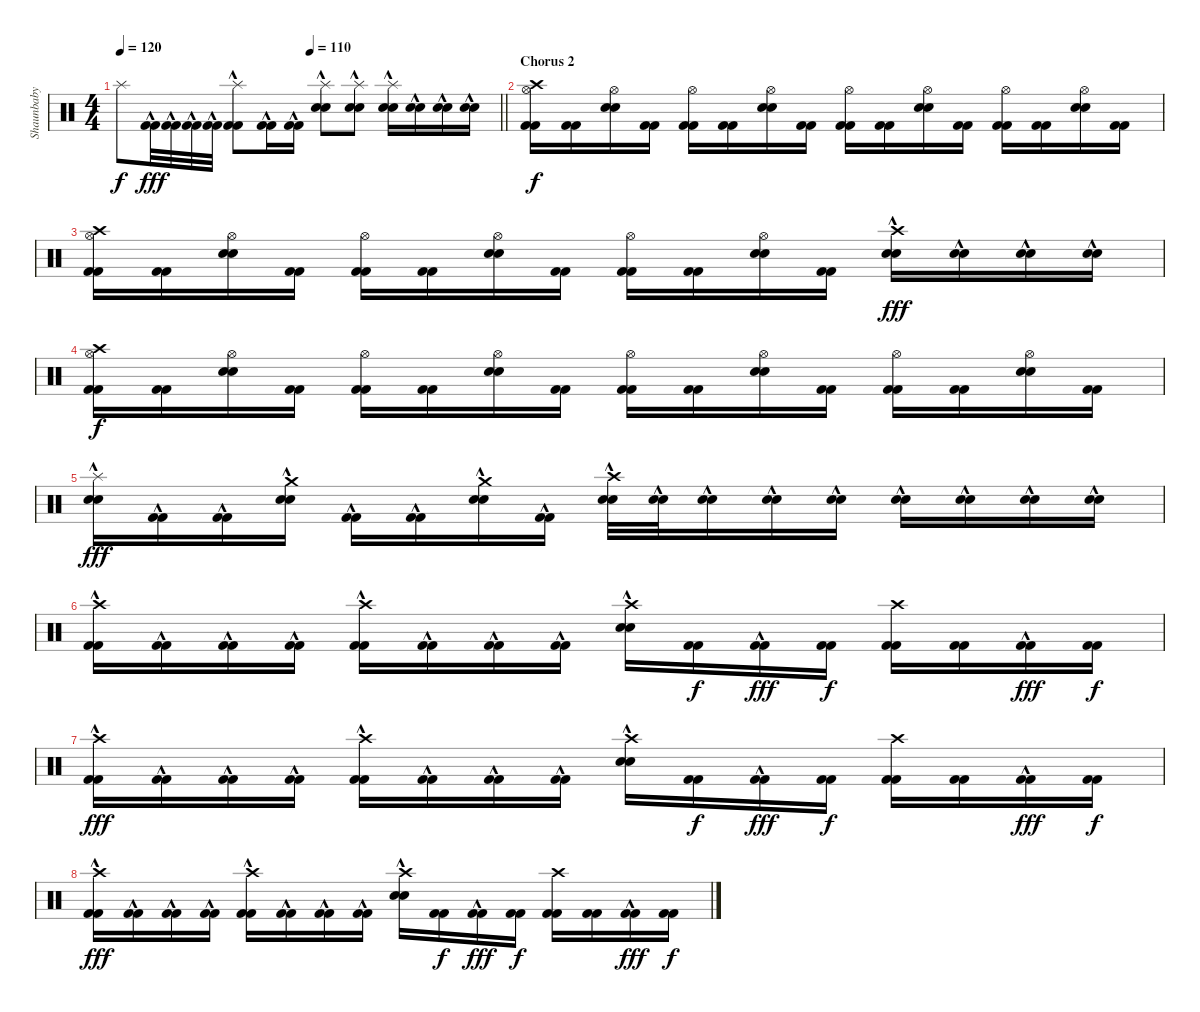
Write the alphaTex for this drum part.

\track ("Shaunbaby" "Shaunbaby") {instrument percussion}
\staff {score}
\articulation defaults
\ts (4 4)
\tempo 120
\tempo (110 0.5)
\clef neutral
\barLineRight lightlight
\ks c "Splash (hit)".8{dy f}
("Kick (hit) 2"{hac} "Kick (hit) 2"{hac}).32{dy fff} ("Kick (hit) 2"{hac} "Kick (hit) 2"{hac}).32 ("Kick (hit) 2"{hac} "Kick (hit) 2"{hac}).32 ("Kick (hit) 2"{hac} "Kick (hit) 2"{hac}).32 ("Splash (hit)" "Kick (hit) 2"{hac} "Kick (hit) 2"{hac}).8 ("Kick (hit) 2"{hac} "Kick (hit) 2"{hac}).16 ("Kick (hit) 2"{hac} "Kick (hit) 2"{hac}).16 ("Splash (hit)" "Electric Snare (hit)"{hac} "Electric Snare (hit)"{hac}).8 ("Splash (hit)" "Electric Snare (hit)"{hac} "Electric Snare (hit)"{hac}).8 ("Splash (hit)" "Electric Snare (hit)"{hac} "Electric Snare (hit)"{hac}).16 ("Electric Snare (hit)"{hac} "Electric Snare (hit)"{hac}).16 ("Electric Snare (hit)"{hac} "Electric Snare (hit)"{hac}).16 ("Electric Snare (hit)"{hac} "Electric Snare (hit)"{hac}).16 |
\section ("" "Chorus 2")
("Crash high (hit)" "Hi-Hat (open)" "Kick (hit) 2" "Kick (hit) 2").16{dy f} ("Kick (hit) 2" "Kick (hit) 2").16 ("Hi-Hat (open)" "Electric Snare (hit)" "Electric Snare (hit)").16 ("Kick (hit) 2" "Kick (hit) 2").16 ("Hi-Hat (open)" "Kick (hit) 2" "Kick (hit) 2").16 ("Kick (hit) 2" "Kick (hit) 2").16 ("Hi-Hat (open)" "Electric Snare (hit)" "Electric Snare (hit)").16 ("Kick (hit) 2" "Kick (hit) 2").16 ("Hi-Hat (open)" "Kick (hit) 2" "Kick (hit) 2").16 ("Kick (hit) 2" "Kick (hit) 2").16 ("Hi-Hat (open)" "Electric Snare (hit)" "Electric Snare (hit)").16 ("Kick (hit) 2" "Kick (hit) 2").16 ("Hi-Hat (open)" "Kick (hit) 2" "Kick (hit) 2").16 ("Kick (hit) 2" "Kick (hit) 2").16 ("Hi-Hat (open)" "Electric Snare (hit)" "Electric Snare (hit)").16 ("Kick (hit) 2" "Kick (hit) 2").16 |
("Crash high (hit)" "Hi-Hat (open)" "Kick (hit) 2" "Kick (hit) 2").16 ("Kick (hit) 2" "Kick (hit) 2").16 ("Hi-Hat (open)" "Electric Snare (hit)" "Electric Snare (hit)").16 ("Kick (hit) 2" "Kick (hit) 2").16 ("Hi-Hat (open)" "Kick (hit) 2" "Kick (hit) 2").16 ("Kick (hit) 2" "Kick (hit) 2").16 ("Hi-Hat (open)" "Electric Snare (hit)" "Electric Snare (hit)").16 ("Kick (hit) 2" "Kick (hit) 2").16 ("Hi-Hat (open)" "Kick (hit) 2" "Kick (hit) 2").16 ("Kick (hit) 2" "Kick (hit) 2").16 ("Hi-Hat (open)" "Electric Snare (hit)" "Electric Snare (hit)").16 ("Kick (hit) 2" "Kick (hit) 2").16 ("Crash high (hit)" "Electric Snare (hit)"{hac} "Electric Snare (hit)"{hac}).16{dy fff} ("Electric Snare (hit)"{hac} "Electric Snare (hit)"{hac}).16 ("Electric Snare (hit)"{hac} "Electric Snare (hit)"{hac}).16 ("Electric Snare (hit)"{hac} "Electric Snare (hit)"{hac}).16 |
("Crash high (hit)" "Hi-Hat (open)" "Kick (hit) 2" "Kick (hit) 2").16{dy f} ("Kick (hit) 2" "Kick (hit) 2").16 ("Hi-Hat (open)" "Electric Snare (hit)" "Electric Snare (hit)").16 ("Kick (hit) 2" "Kick (hit) 2").16 ("Hi-Hat (open)" "Kick (hit) 2" "Kick (hit) 2").16 ("Kick (hit) 2" "Kick (hit) 2").16 ("Hi-Hat (open)" "Electric Snare (hit)" "Electric Snare (hit)").16 ("Kick (hit) 2" "Kick (hit) 2").16 ("Hi-Hat (open)" "Kick (hit) 2" "Kick (hit) 2").16 ("Kick (hit) 2" "Kick (hit) 2").16 ("Hi-Hat (open)" "Electric Snare (hit)" "Electric Snare (hit)").16 ("Kick (hit) 2" "Kick (hit) 2").16 ("Hi-Hat (open)" "Kick (hit) 2" "Kick (hit) 2").16 ("Kick (hit) 2" "Kick (hit) 2").16 ("Hi-Hat (open)" "Electric Snare (hit)" "Electric Snare (hit)").16 ("Kick (hit) 2" "Kick (hit) 2").16 |
("Splash (hit)" "Electric Snare (hit)"{hac} "Electric Snare (hit)"{hac}).16{dy fff} ("Kick (hit) 2"{hac} "Kick (hit) 2"{hac}).16 ("Kick (hit) 2"{hac} "Kick (hit) 2"{hac}).16 ("Crash medium (hit)" "Electric Snare (hit)"{hac} "Electric Snare (hit)"{hac}).16 ("Kick (hit) 2"{hac} "Kick (hit) 2"{hac}).16 ("Kick (hit) 2"{hac} "Kick (hit) 2"{hac}).16 ("Crash medium (hit)" "Electric Snare (hit)"{hac} "Electric Snare (hit)"{hac}).16 ("Kick (hit) 2"{hac} "Kick (hit) 2"{hac}).16 ("Crash high (hit)" "Electric Snare (hit)"{hac} "Electric Snare (hit)"{hac}).32 ("Electric Snare (hit)"{hac} "Electric Snare (hit)"{hac}).32 ("Electric Snare (hit)"{hac} "Electric Snare (hit)"{hac}).16 ("Electric Snare (hit)"{hac} "Electric Snare (hit)"{hac}).16 ("Electric Snare (hit)"{hac} "Electric Snare (hit)"{hac}).16 ("Electric Snare (hit)"{hac} "Electric Snare (hit)"{hac}).16 ("Electric Snare (hit)"{hac} "Electric Snare (hit)"{hac}).16 ("Electric Snare (hit)"{hac} "Electric Snare (hit)"{hac}).16 ("Electric Snare (hit)"{hac} "Electric Snare (hit)"{hac}).16 |
("Crash high (hit)" "Kick (hit) 2"{hac} "Kick (hit) 2"{hac}).16 ("Kick (hit) 2"{hac} "Kick (hit) 2"{hac}).16 ("Kick (hit) 2"{hac} "Kick (hit) 2"{hac}).16 ("Kick (hit) 2"{hac} "Kick (hit) 2"{hac}).16 ("Crash high (hit)" "Kick (hit) 2"{hac} "Kick (hit) 2"{hac}).16 ("Kick (hit) 2"{hac} "Kick (hit) 2"{hac}).16 ("Kick (hit) 2"{hac} "Kick (hit) 2"{hac}).16 ("Kick (hit) 2"{hac} "Kick (hit) 2"{hac}).16 ("Crash high (hit)" "Electric Snare (hit)"{hac} "Electric Snare (hit)"{hac}).16 ("Kick (hit) 2" "Kick (hit) 2").16{dy f} ("Kick (hit) 2"{hac} "Kick (hit) 2"{hac}).16{dy fff} ("Kick (hit) 2" "Kick (hit) 2").16{dy f} ("Crash high (hit)" "Kick (hit) 2" "Kick (hit) 2").16 ("Kick (hit) 2" "Kick (hit) 2").16 ("Kick (hit) 2"{hac} "Kick (hit) 2"{hac}).16{dy fff} ("Kick (hit) 2" "Kick (hit) 2").16{dy f} |
("Crash high (hit)" "Kick (hit) 2"{hac} "Kick (hit) 2"{hac}).16{dy fff} ("Kick (hit) 2"{hac} "Kick (hit) 2"{hac}).16 ("Kick (hit) 2"{hac} "Kick (hit) 2"{hac}).16 ("Kick (hit) 2"{hac} "Kick (hit) 2"{hac}).16 ("Crash high (hit)" "Kick (hit) 2"{hac} "Kick (hit) 2"{hac}).16 ("Kick (hit) 2"{hac} "Kick (hit) 2"{hac}).16 ("Kick (hit) 2"{hac} "Kick (hit) 2"{hac}).16 ("Kick (hit) 2"{hac} "Kick (hit) 2"{hac}).16 ("Crash high (hit)" "Electric Snare (hit)"{hac} "Electric Snare (hit)"{hac}).16 ("Kick (hit) 2" "Kick (hit) 2").16{dy f} ("Kick (hit) 2"{hac} "Kick (hit) 2"{hac}).16{dy fff} ("Kick (hit) 2" "Kick (hit) 2").16{dy f} ("Crash high (hit)" "Kick (hit) 2" "Kick (hit) 2").16 ("Kick (hit) 2" "Kick (hit) 2").16 ("Kick (hit) 2"{hac} "Kick (hit) 2"{hac}).16{dy fff} ("Kick (hit) 2" "Kick (hit) 2").16{dy f} |
("Crash high (hit)" "Kick (hit) 2"{hac} "Kick (hit) 2"{hac}).16{dy fff} ("Kick (hit) 2"{hac} "Kick (hit) 2"{hac}).16 ("Kick (hit) 2"{hac} "Kick (hit) 2"{hac}).16 ("Kick (hit) 2"{hac} "Kick (hit) 2"{hac}).16 ("Crash high (hit)" "Kick (hit) 2"{hac} "Kick (hit) 2"{hac}).16 ("Kick (hit) 2"{hac} "Kick (hit) 2"{hac}).16 ("Kick (hit) 2"{hac} "Kick (hit) 2"{hac}).16 ("Kick (hit) 2"{hac} "Kick (hit) 2"{hac}).16 ("Crash high (hit)" "Electric Snare (hit)"{hac} "Electric Snare (hit)"{hac}).16 ("Kick (hit) 2" "Kick (hit) 2").16{dy f} ("Kick (hit) 2"{hac} "Kick (hit) 2"{hac}).16{dy fff} ("Kick (hit) 2" "Kick (hit) 2").16{dy f} ("Crash high (hit)" "Kick (hit) 2" "Kick (hit) 2").16 ("Kick (hit) 2" "Kick (hit) 2").16 ("Kick (hit) 2"{hac} "Kick (hit) 2"{hac}).16{dy fff} ("Kick (hit) 2" "Kick (hit) 2").16{dy f}
